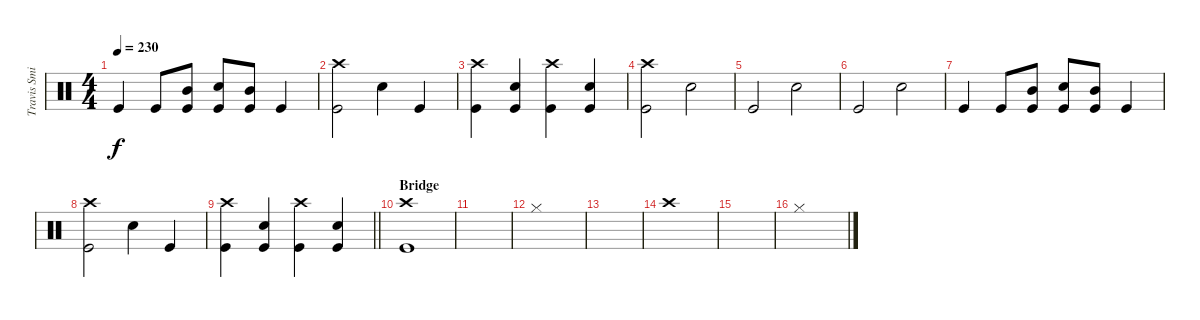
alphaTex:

\track ("Travis Smith" "Travis Smi") {instrument percussion}
\staff {score}
\articulation defaults
\ts (4 4)
\tempo 230
\clef neutral
\ks c "Kick (hit)".4{dy f} "Kick (hit)".8
("Mid Tom (hit)" "Kick (hit)").8 ("Snare (hit) 2" "Kick (hit)").8 ("Mid Tom (hit)" "Kick (hit)").8 "Kick (hit)".4 |
("Crash high (hit)" "Kick (hit)").2 "Snare (hit) 2".4 "Kick (hit)".4 |
("Crash high (hit)" "Kick (hit)").4 ("Snare (hit) 2" "Kick (hit)").4 ("Crash high (hit)" "Kick (hit)").4 ("Snare (hit) 2" "Kick (hit)").4 |
("Crash high (hit)" "Kick (hit)").2 "Snare (hit) 2".2 |
"Kick (hit)".2 "Snare (hit) 2".2 |
"Kick (hit)".2 "Snare (hit) 2".2 |
"Kick (hit)".4 "Kick (hit)".8 ("Mid Tom (hit)" "Kick (hit)").8 ("Snare (hit) 2" "Kick (hit)").8 ("Mid Tom (hit)" "Kick (hit)").8 "Kick (hit)".4 |
("Crash high (hit)" "Kick (hit)").2 "Snare (hit) 2".4 "Kick (hit)".4 |
\barLineRight lightlight
("Crash high (hit)" "Kick (hit)").4 ("Snare (hit) 2" "Kick (hit)").4 ("Crash high (hit)" "Kick (hit)").4 ("Snare (hit) 2" "Kick (hit)").4 |
\section ("" "Bridge")
("Crash high (hit)" "Kick (hit)").1 |
|
"Hi-Hat (closed)".1 |
|
"Crash high (hit)".1 |
|
"Hi-Hat (closed)".1
